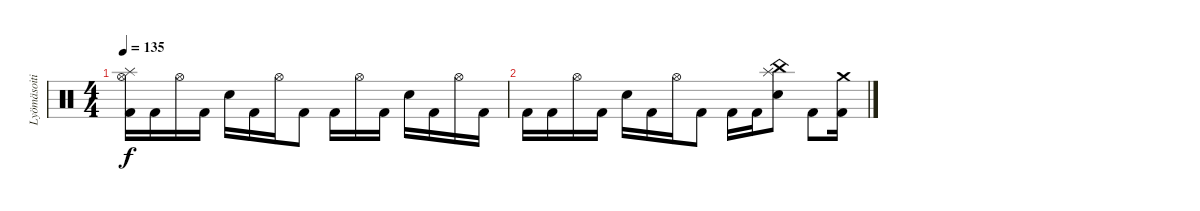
\track ("Lyömäsoitin" "Lyömäsoiti") {instrument percussion}
\staff {score}
\articulation defaults
\ts (4 4)
\tempo 135
\clef neutral
\ks c
("Hi-Hat (open)" "Splash (hit)" "Kick (hit) 2").16{dy f} "Kick (hit) 2".16 "Hi-Hat (open)".16 "Kick (hit) 2".16 "Electric Snare (hit)".16 "Kick (hit) 2".16 "Hi-Hat (open)".16 "Kick (hit) 2".8 "Kick (hit) 2".16 "Hi-Hat (open)".16 "Kick (hit) 2".16 "Electric Snare (hit)".16 "Kick (hit) 2".16 "Hi-Hat (open)".16 "Kick (hit) 2".16 |
"Kick (hit) 2".16 "Kick (hit) 2".16 "Hi-Hat (open)".16 "Kick (hit) 2".16 "Electric Snare (hit)".16 "Kick (hit) 2".16 "Hi-Hat (open)".16 "Kick (hit) 2".8 "Kick (hit) 2".16 "Kick (hit) 2".16 ("Splash (hit)" "China (hit)" "Electric Snare (hit)").8 "Kick (hit) 2".8 ("Crash medium (hit)" "Kick (hit) 2").16
